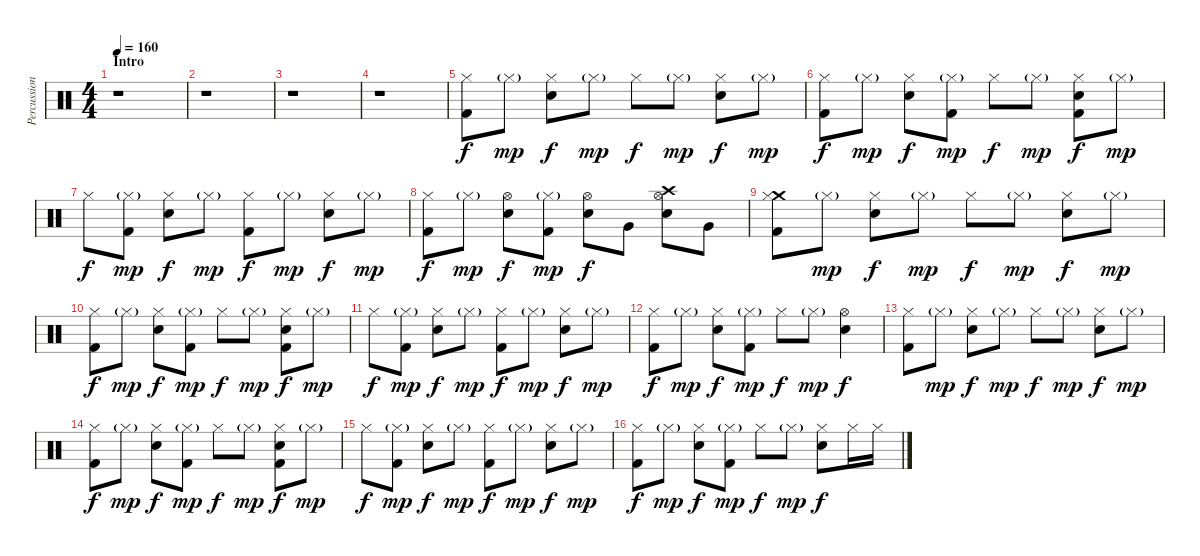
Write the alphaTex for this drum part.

\track ("Percussions" "Percussion") {instrument percussion}
\staff {score}
\articulation defaults
\ts (4 4)
\section ("" "Intro")
\tempo 160
\clef neutral
\ks c
r.1{dy f} |
r.1 |
r.1 |
r.1 |
("Hi-Hat (closed)" "Kick (hit) 2").8 "Hi-Hat (closed)"{g}.8{dy mp} ("Hi-Hat (closed)" "Snare (hit) 2").8{dy f} "Hi-Hat (closed)"{g}.8{dy mp} "Hi-Hat (closed)".8{dy f} "Hi-Hat (closed)"{g}.8{dy mp} ("Hi-Hat (closed)" "Snare (hit) 2").8{dy f} "Hi-Hat (closed)"{g}.8{dy mp} |
("Hi-Hat (closed)" "Kick (hit) 2").8{dy f} "Hi-Hat (closed)"{g}.8{dy mp} ("Hi-Hat (closed)" "Snare (hit) 2").8{dy f} ("Hi-Hat (closed)"{g} "Kick (hit) 2").8{dy mp} "Hi-Hat (closed)".8{dy f} "Hi-Hat (closed)"{g}.8{dy mp} ("Hi-Hat (closed)" "Snare (hit) 2" "Kick (hit) 2").8{dy f} "Hi-Hat (closed)"{g}.8{dy mp} |
"Hi-Hat (closed)".8{dy f} ("Hi-Hat (closed)"{g} "Kick (hit) 2").8{dy mp} ("Hi-Hat (closed)" "Snare (hit) 2").8{dy f} "Hi-Hat (closed)"{g}.8{dy mp} ("Hi-Hat (closed)" "Kick (hit) 2").8{dy f} "Hi-Hat (closed)"{g}.8{dy mp} ("Hi-Hat (closed)" "Snare (hit) 2").8{dy f} "Hi-Hat (closed)"{g}.8{dy mp} |
("Hi-Hat (closed)" "Kick (hit) 2").8{dy f} "Hi-Hat (closed)"{g}.8{dy mp} ("Hi-Hat (open)" "Snare (hit) 2").8{dy f} ("Hi-Hat (closed)"{g} "Kick (hit) 2").8{dy mp} ("Hi-Hat (open)" "Snare (hit) 2").8{dy f} "Very Low Tom (hit)".8 ("Crash high (hit)" "Hi-Hat (open)" "Snare (hit) 2").8 "Very Low Tom (hit)".8 |
("Crash medium (hit)" "Hi-Hat (closed)" "Kick (hit) 2").8 "Hi-Hat (closed)"{g}.8{dy mp} ("Hi-Hat (closed)" "Snare (hit) 2").8{dy f} "Hi-Hat (closed)"{g}.8{dy mp} "Hi-Hat (closed)".8{dy f} "Hi-Hat (closed)"{g}.8{dy mp} ("Hi-Hat (closed)" "Snare (hit) 2").8{dy f} "Hi-Hat (closed)"{g}.8{dy mp} |
("Hi-Hat (closed)" "Kick (hit) 2").8{dy f} "Hi-Hat (closed)"{g}.8{dy mp} ("Hi-Hat (closed)" "Snare (hit) 2").8{dy f} ("Hi-Hat (closed)"{g} "Kick (hit) 2").8{dy mp} "Hi-Hat (closed)".8{dy f} "Hi-Hat (closed)"{g}.8{dy mp} ("Hi-Hat (closed)" "Snare (hit) 2" "Kick (hit) 2").8{dy f} "Hi-Hat (closed)"{g}.8{dy mp} |
"Hi-Hat (closed)".8{dy f} ("Hi-Hat (closed)"{g} "Kick (hit) 2").8{dy mp} ("Hi-Hat (closed)" "Snare (hit) 2").8{dy f} "Hi-Hat (closed)"{g}.8{dy mp} ("Hi-Hat (closed)" "Kick (hit) 2").8{dy f} "Hi-Hat (closed)"{g}.8{dy mp} ("Hi-Hat (closed)" "Snare (hit) 2").8{dy f} "Hi-Hat (closed)"{g}.8{dy mp} |
("Hi-Hat (closed)" "Kick (hit) 2").8{dy f} "Hi-Hat (closed)"{g}.8{dy mp} ("Hi-Hat (closed)" "Snare (hit) 2").8{dy f} ("Hi-Hat (closed)"{g} "Kick (hit) 2").8{dy mp} "Hi-Hat (closed)".8{dy f} "Hi-Hat (closed)"{g}.8{dy mp} ("Hi-Hat (open)" "Snare (hit) 2").4{dy f} |
("Hi-Hat (closed)" "Kick (hit) 2").8 "Hi-Hat (closed)"{g}.8{dy mp} ("Hi-Hat (closed)" "Snare (hit) 2").8{dy f} "Hi-Hat (closed)"{g}.8{dy mp} "Hi-Hat (closed)".8{dy f} "Hi-Hat (closed)"{g}.8{dy mp} ("Hi-Hat (closed)" "Snare (hit) 2").8{dy f} "Hi-Hat (closed)"{g}.8{dy mp} |
("Hi-Hat (closed)" "Kick (hit) 2").8{dy f} "Hi-Hat (closed)"{g}.8{dy mp} ("Hi-Hat (closed)" "Snare (hit) 2").8{dy f} ("Hi-Hat (closed)"{g} "Kick (hit) 2").8{dy mp} "Hi-Hat (closed)".8{dy f} "Hi-Hat (closed)"{g}.8{dy mp} ("Hi-Hat (closed)" "Snare (hit) 2" "Kick (hit) 2").8{dy f} "Hi-Hat (closed)"{g}.8{dy mp} |
"Hi-Hat (closed)".8{dy f} ("Hi-Hat (closed)"{g} "Kick (hit) 2").8{dy mp} ("Hi-Hat (closed)" "Snare (hit) 2").8{dy f} "Hi-Hat (closed)"{g}.8{dy mp} ("Hi-Hat (closed)" "Kick (hit) 2").8{dy f} "Hi-Hat (closed)"{g}.8{dy mp} ("Hi-Hat (closed)" "Snare (hit) 2").8{dy f} "Hi-Hat (closed)"{g}.8{dy mp} |
("Hi-Hat (closed)" "Kick (hit) 2").8{dy f} "Hi-Hat (closed)"{g}.8{dy mp} ("Hi-Hat (closed)" "Snare (hit) 2").8{dy f} ("Hi-Hat (closed)"{g} "Kick (hit) 2").8{dy mp} "Hi-Hat (closed)".8{dy f} "Hi-Hat (closed)"{g}.8{dy mp} ("Hi-Hat (closed)" "Snare (hit) 2").8{dy f} "Hi-Hat (closed)".16 "Hi-Hat (closed)".16
